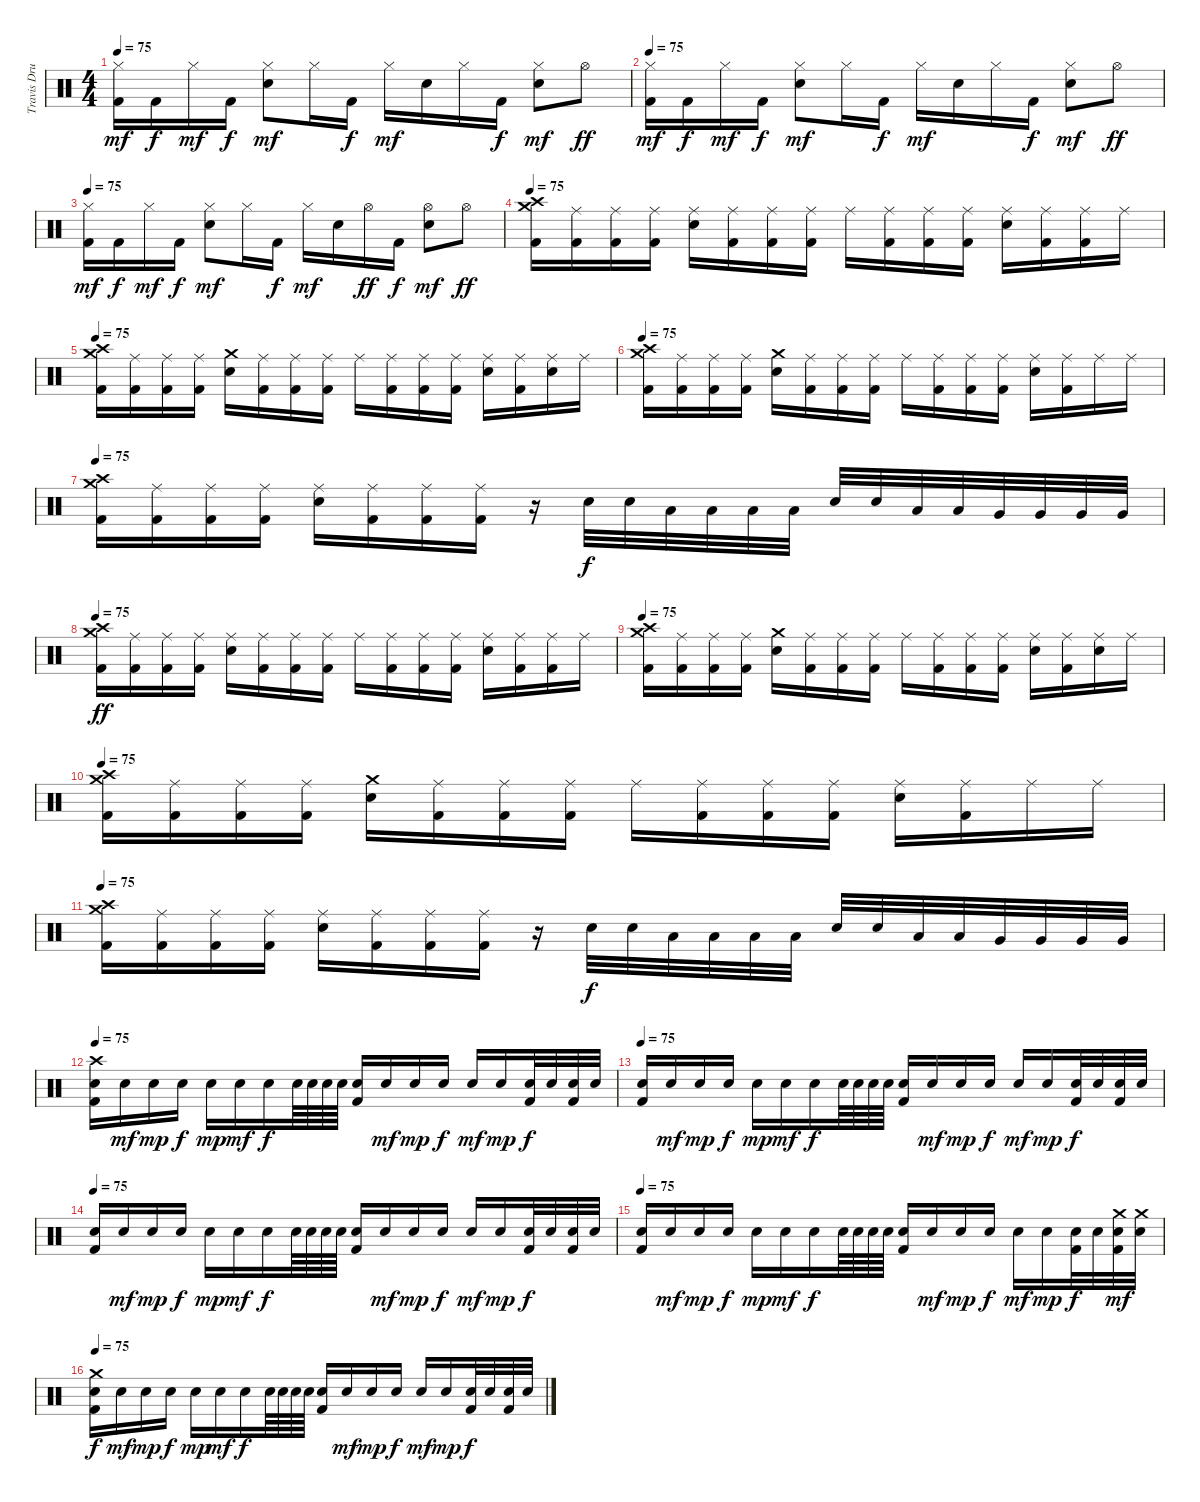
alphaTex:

\track ("Travis Drums" "Travis Dru") {instrument percussion}
\staff {score}
\articulation defaults
\ts (4 4)
\tempo 75
\clef neutral
\ks c
("Hi-Hat (closed)" "Kick (hit) 2").16{dy mf} "Kick (hit) 2".16{dy f} "Hi-Hat (closed)".16{dy mf} "Kick (hit) 2".16{dy f} ("Hi-Hat (closed)" "Electric Snare (hit)").8{dy mf} "Hi-Hat (closed)".16 "Kick (hit) 2".16{dy f} "Hi-Hat (closed)".16{dy mf} "Electric Snare (hit)".16 "Hi-Hat (closed)".16 "Kick (hit) 2".16{dy f} ("Hi-Hat (closed)" "Electric Snare (hit)").8{dy mf} "Hi-Hat (open)".8{dy ff} |
\tempo 75
("Hi-Hat (closed)" "Kick (hit) 2").16{dy mf} "Kick (hit) 2".16{dy f} "Hi-Hat (closed)".16{dy mf} "Kick (hit) 2".16{dy f} ("Hi-Hat (closed)" "Electric Snare (hit)").8{dy mf} "Hi-Hat (closed)".16 "Kick (hit) 2".16{dy f} "Hi-Hat (closed)".16{dy mf} "Electric Snare (hit)".16 "Hi-Hat (closed)".16 "Kick (hit) 2".16{dy f} ("Hi-Hat (closed)" "Electric Snare (hit)").8{dy mf} "Hi-Hat (open)".8{dy ff} |
\tempo 75
("Hi-Hat (closed)" "Kick (hit) 2").16{dy mf} "Kick (hit) 2".16{dy f} "Hi-Hat (closed)".16{dy mf} "Kick (hit) 2".16{dy f} ("Hi-Hat (closed)" "Electric Snare (hit)").8{dy mf} "Hi-Hat (closed)".16 "Kick (hit) 2".16{dy f} "Hi-Hat (closed)".16{dy mf} "Electric Snare (hit)".16 "Hi-Hat (open)".16{dy ff} "Kick (hit) 2".16{dy f} ("Hi-Hat (open)" "Electric Snare (hit)").8{dy mf} "Hi-Hat (open)".8{dy ff} |
\tempo 75
("Crash medium (hit)" "Crash high (hit)" "Kick (hit) 2").16 ("Ride (middle)" "Kick (hit) 2").16 ("Ride (middle)" "Kick (hit) 2").16 ("Ride (middle)" "Kick (hit) 2").16 ("Ride (middle)" "Electric Snare (hit)").16 ("Ride (middle)" "Kick (hit) 2").16 ("Ride (middle)" "Kick (hit) 2").16 ("Ride (middle)" "Kick (hit) 2").16 "Ride (middle)".16 ("Ride (middle)" "Kick (hit) 2").16 ("Ride (middle)" "Kick (hit) 2").16 ("Ride (middle)" "Kick (hit) 2").16 ("Ride (middle)" "Electric Snare (hit)").16 ("Ride (middle)" "Kick (hit) 2").16 ("Ride (middle)" "Kick (hit) 2").16 "Ride (middle)".16 |
\tempo 75
("Crash medium (hit)" "Crash high (hit)" "Kick (hit) 2").16 ("Ride (middle)" "Kick (hit) 2").16 ("Ride (middle)" "Kick (hit) 2").16 ("Ride (middle)" "Kick (hit) 2").16 ("Crash medium (hit)" "Electric Snare (hit)").16 ("Ride (middle)" "Kick (hit) 2").16 ("Ride (middle)" "Kick (hit) 2").16 ("Ride (middle)" "Kick (hit) 2").16 "Ride (middle)".16 ("Ride (middle)" "Kick (hit) 2").16 ("Ride (middle)" "Kick (hit) 2").16 ("Ride (middle)" "Kick (hit) 2").16 ("Ride (middle)" "Electric Snare (hit)").16 ("Ride (middle)" "Kick (hit) 2").16 ("Ride (middle)" "Electric Snare (hit)").16 "Ride (middle)".16 |
\tempo 75
("Crash medium (hit)" "Crash high (hit)" "Kick (hit) 2").16 ("Ride (middle)" "Kick (hit) 2").16 ("Ride (middle)" "Kick (hit) 2").16 ("Ride (middle)" "Kick (hit) 2").16 ("Crash medium (hit)" "Electric Snare (hit)").16 ("Ride (middle)" "Kick (hit) 2").16 ("Ride (middle)" "Kick (hit) 2").16 ("Ride (middle)" "Kick (hit) 2").16 "Ride (middle)".16 ("Ride (middle)" "Kick (hit) 2").16 ("Ride (middle)" "Kick (hit) 2").16 ("Ride (middle)" "Kick (hit) 2").16 ("Ride (middle)" "Electric Snare (hit)").16 ("Ride (middle)" "Kick (hit) 2").16 "Ride (middle)".16 "Ride (middle)".16 |
\tempo 75
("Crash medium (hit)" "Crash high (hit)" "Kick (hit) 2").16 ("Ride (middle)" "Kick (hit) 2").16 ("Ride (middle)" "Kick (hit) 2").16 ("Ride (middle)" "Kick (hit) 2").16 ("Ride (middle)" "Electric Snare (hit)").16 ("Ride (middle)" "Kick (hit) 2").16 ("Ride (middle)" "Kick (hit) 2").16 ("Ride (middle)" "Kick (hit) 2").16 r.16 "Electric Snare (hit)".32{dy f} "Electric Snare (hit)".32 "Low Tom (hit)".32 "Low Tom (hit)".32 "Low Tom (hit)".32 "Low Tom (hit)".32 "Electric Snare (hit)".32 "Electric Snare (hit)".32 "Low Tom (hit)".32 "Low Tom (hit)".32 "Very Low Tom (hit)".32 "Very Low Tom (hit)".32 "Very Low Tom (hit)".32 "Very Low Tom (hit)".32 |
\tempo 75
("Crash medium (hit)" "Crash high (hit)" "Kick (hit) 2").16{dy ff} ("Ride (middle)" "Kick (hit) 2").16 ("Ride (middle)" "Kick (hit) 2").16 ("Ride (middle)" "Kick (hit) 2").16 ("Ride (middle)" "Electric Snare (hit)").16 ("Ride (middle)" "Kick (hit) 2").16 ("Ride (middle)" "Kick (hit) 2").16 ("Ride (middle)" "Kick (hit) 2").16 "Ride (middle)".16 ("Ride (middle)" "Kick (hit) 2").16 ("Ride (middle)" "Kick (hit) 2").16 ("Ride (middle)" "Kick (hit) 2").16 ("Ride (middle)" "Electric Snare (hit)").16 ("Ride (middle)" "Kick (hit) 2").16 ("Ride (middle)" "Kick (hit) 2").16 "Ride (middle)".16 |
\tempo 75
("Crash medium (hit)" "Crash high (hit)" "Kick (hit) 2").16 ("Ride (middle)" "Kick (hit) 2").16 ("Ride (middle)" "Kick (hit) 2").16 ("Ride (middle)" "Kick (hit) 2").16 ("Crash medium (hit)" "Electric Snare (hit)").16 ("Ride (middle)" "Kick (hit) 2").16 ("Ride (middle)" "Kick (hit) 2").16 ("Ride (middle)" "Kick (hit) 2").16 "Ride (middle)".16 ("Ride (middle)" "Kick (hit) 2").16 ("Ride (middle)" "Kick (hit) 2").16 ("Ride (middle)" "Kick (hit) 2").16 ("Ride (middle)" "Electric Snare (hit)").16 ("Ride (middle)" "Kick (hit) 2").16 ("Ride (middle)" "Electric Snare (hit)").16 "Ride (middle)".16 |
\tempo 75
("Crash medium (hit)" "Crash high (hit)" "Kick (hit) 2").16 ("Ride (middle)" "Kick (hit) 2").16 ("Ride (middle)" "Kick (hit) 2").16 ("Ride (middle)" "Kick (hit) 2").16 ("Crash medium (hit)" "Electric Snare (hit)").16 ("Ride (middle)" "Kick (hit) 2").16 ("Ride (middle)" "Kick (hit) 2").16 ("Ride (middle)" "Kick (hit) 2").16 "Ride (middle)".16 ("Ride (middle)" "Kick (hit) 2").16 ("Ride (middle)" "Kick (hit) 2").16 ("Ride (middle)" "Kick (hit) 2").16 ("Ride (middle)" "Electric Snare (hit)").16 ("Ride (middle)" "Kick (hit) 2").16 "Ride (middle)".16 "Ride (middle)".16 |
\tempo 75
("Crash medium (hit)" "Crash high (hit)" "Kick (hit) 2").16 ("Ride (middle)" "Kick (hit) 2").16 ("Ride (middle)" "Kick (hit) 2").16 ("Ride (middle)" "Kick (hit) 2").16 ("Ride (middle)" "Electric Snare (hit)").16 ("Ride (middle)" "Kick (hit) 2").16 ("Ride (middle)" "Kick (hit) 2").16 ("Ride (middle)" "Kick (hit) 2").16 r.16 "Electric Snare (hit)".32{dy f} "Electric Snare (hit)".32 "Low Tom (hit)".32 "Low Tom (hit)".32 "Low Tom (hit)".32 "Low Tom (hit)".32 "Electric Snare (hit)".32 "Electric Snare (hit)".32 "Low Tom (hit)".32 "Low Tom (hit)".32 "Very Low Tom (hit)".32 "Very Low Tom (hit)".32 "Very Low Tom (hit)".32 "Very Low Tom (hit)".32 |
\tempo 75
("Crash high (hit)" "Electric Snare (hit)" "Kick (hit) 2").16 "Electric Snare (hit)".16{dy mf} "Electric Snare (hit)".16{dy mp} "Electric Snare (hit)".16{dy f} "Electric Snare (hit)".16{dy mp} "Electric Snare (hit)".16{dy mf} "Electric Snare (hit)".16{dy f} "Electric Snare (hit)".64 "Electric Snare (hit)".64 "Electric Snare (hit)".64 "Electric Snare (hit)".64 ("Electric Snare (hit)" "Kick (hit) 2").16 "Electric Snare (hit)".16{dy mf} "Electric Snare (hit)".16{dy mp} "Electric Snare (hit)".16{dy f} "Electric Snare (hit)".16{dy mf} "Electric Snare (hit)".16{dy mp} ("Electric Snare (hit)" "Kick (hit) 2").32{dy f} "Electric Snare (hit)".32 ("Electric Snare (hit)" "Kick (hit) 2").32 "Electric Snare (hit)".32 |
\tempo 75
("Electric Snare (hit)" "Kick (hit) 2").16 "Electric Snare (hit)".16{dy mf} "Electric Snare (hit)".16{dy mp} "Electric Snare (hit)".16{dy f} "Electric Snare (hit)".16{dy mp} "Electric Snare (hit)".16{dy mf} "Electric Snare (hit)".16{dy f} "Electric Snare (hit)".64 "Electric Snare (hit)".64 "Electric Snare (hit)".64 "Electric Snare (hit)".64 ("Electric Snare (hit)" "Kick (hit) 2").16 "Electric Snare (hit)".16{dy mf} "Electric Snare (hit)".16{dy mp} "Electric Snare (hit)".16{dy f} "Electric Snare (hit)".16{dy mf} "Electric Snare (hit)".16{dy mp} ("Electric Snare (hit)" "Kick (hit) 2").32{dy f} "Electric Snare (hit)".32 ("Electric Snare (hit)" "Kick (hit) 2").32 "Electric Snare (hit)".32 |
\tempo 75
("Electric Snare (hit)" "Kick (hit) 2").16 "Electric Snare (hit)".16{dy mf} "Electric Snare (hit)".16{dy mp} "Electric Snare (hit)".16{dy f} "Electric Snare (hit)".16{dy mp} "Electric Snare (hit)".16{dy mf} "Electric Snare (hit)".16{dy f} "Electric Snare (hit)".64 "Electric Snare (hit)".64 "Electric Snare (hit)".64 "Electric Snare (hit)".64 ("Electric Snare (hit)" "Kick (hit) 2").16 "Electric Snare (hit)".16{dy mf} "Electric Snare (hit)".16{dy mp} "Electric Snare (hit)".16{dy f} "Electric Snare (hit)".16{dy mf} "Electric Snare (hit)".16{dy mp} ("Electric Snare (hit)" "Kick (hit) 2").32{dy f} "Electric Snare (hit)".32 ("Electric Snare (hit)" "Kick (hit) 2").32 "Electric Snare (hit)".32 |
\tempo 75
("Electric Snare (hit)" "Kick (hit) 2").16 "Electric Snare (hit)".16{dy mf} "Electric Snare (hit)".16{dy mp} "Electric Snare (hit)".16{dy f} "Electric Snare (hit)".16{dy mp} "Electric Snare (hit)".16{dy mf} "Electric Snare (hit)".16{dy f} "Electric Snare (hit)".64 "Electric Snare (hit)".64 "Electric Snare (hit)".64 "Electric Snare (hit)".64 ("Electric Snare (hit)" "Kick (hit) 2").16 "Electric Snare (hit)".16{dy mf} "Electric Snare (hit)".16{dy mp} "Electric Snare (hit)".16{dy f} "Electric Snare (hit)".16{dy mf} "Electric Snare (hit)".16{dy mp} ("Electric Snare (hit)" "Kick (hit) 2").32{dy f} "Electric Snare (hit)".32 ("Crash medium (hit)" "Electric Snare (hit)" "Kick (hit) 2").32{dy mf} ("Crash medium (hit)" "Electric Snare (hit)").32 |
\tempo 75
("Crash medium (hit)" "Electric Snare (hit)" "Kick (hit) 2").16{dy f} "Electric Snare (hit)".16{dy mf} "Electric Snare (hit)".16{dy mp} "Electric Snare (hit)".16{dy f} "Electric Snare (hit)".16{dy mp} "Electric Snare (hit)".16{dy mf} "Electric Snare (hit)".16{dy f} "Electric Snare (hit)".64 "Electric Snare (hit)".64 "Electric Snare (hit)".64 "Electric Snare (hit)".64 ("Electric Snare (hit)" "Kick (hit) 2").16 "Electric Snare (hit)".16{dy mf} "Electric Snare (hit)".16{dy mp} "Electric Snare (hit)".16{dy f} "Electric Snare (hit)".16{dy mf} "Electric Snare (hit)".16{dy mp} ("Electric Snare (hit)" "Kick (hit) 2").32{dy f} "Electric Snare (hit)".32 ("Electric Snare (hit)" "Kick (hit) 2").32 "Electric Snare (hit)".32
